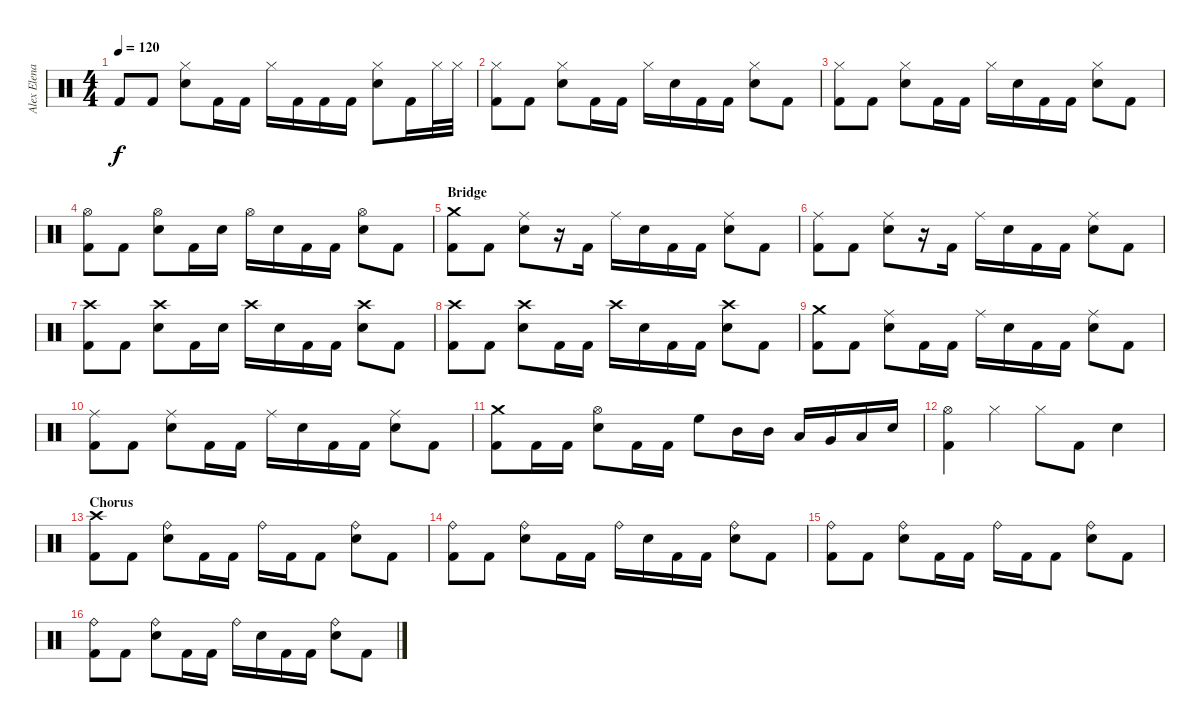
\track ("Alex Elena (Percussion)" "Alex Elena") {instrument percussion}
\staff {score}
\articulation defaults
\ts (4 4)
\tempo 120
\clef neutral
\ks c "Kick (hit) 2".8{dy f} "Kick (hit) 2".8
("Hi-Hat (closed)" "Snare (hit) 2").8 "Kick (hit) 2".16 "Kick (hit) 2".16 "Hi-Hat (closed)".16 "Kick (hit) 2".16 "Kick (hit) 2".16 "Kick (hit) 2".16 ("Hi-Hat (closed)" "Snare (hit) 2").8 "Kick (hit) 2".16 "Hi-Hat (closed)".32 "Hi-Hat (closed)".32 |
("Hi-Hat (closed)" "Kick (hit) 2").8 "Kick (hit) 2".8 ("Hi-Hat (closed)" "Snare (hit) 2").8 "Kick (hit) 2".16 "Kick (hit) 2".16 "Hi-Hat (closed)".16 "Snare (hit) 2".16 "Kick (hit) 2".16 "Kick (hit) 2".16 ("Hi-Hat (closed)" "Snare (hit) 2").8 "Kick (hit) 2".8 |
("Hi-Hat (closed)" "Kick (hit) 2").8 "Kick (hit) 2".8 ("Hi-Hat (closed)" "Snare (hit) 2").8 "Kick (hit) 2".16 "Kick (hit) 2".16 "Hi-Hat (closed)".16 "Snare (hit) 2".16 "Kick (hit) 2".16 "Kick (hit) 2".16 ("Hi-Hat (closed)" "Snare (hit) 2").8 "Kick (hit) 2".8 |
("Hi-Hat (open)" "Kick (hit) 2").8 "Kick (hit) 2".8 ("Hi-Hat (open)" "Snare (hit) 2").8 "Kick (hit) 2".16 "Snare (hit) 2".16 "Hi-Hat (open)".16 "Snare (hit) 2".16 "Kick (hit) 2".16 "Kick (hit) 2".16 ("Hi-Hat (open)" "Snare (hit) 2").8 "Kick (hit) 2".8 |
\section ("" "Bridge")
("Crash medium (hit)" "Kick (hit) 2").8 "Kick (hit) 2".8 ("Ride (middle)" "Snare (hit) 2").8 r.16 "Kick (hit) 2".16 "Ride (middle)".16 "Snare (hit) 2".16 "Kick (hit) 2".16 "Kick (hit) 2".16 ("Ride (middle)" "Snare (hit) 2").8 "Kick (hit) 2".8 |
("Ride (middle)" "Kick (hit) 2").8 "Kick (hit) 2".8 ("Ride (middle)" "Snare (hit) 2").8 r.16 "Kick (hit) 2".16 "Ride (middle)".16 "Snare (hit) 2".16 "Kick (hit) 2".16 "Kick (hit) 2".16 ("Ride (middle)" "Snare (hit) 2").8 "Kick (hit) 2".8 |
("Crash high (hit)" "Kick (hit) 2").8 "Kick (hit) 2".8 ("Crash high (hit)" "Snare (hit) 2").8 "Kick (hit) 2".16 "Snare (hit) 2".16 "Crash high (hit)".16 "Snare (hit) 2".16 "Kick (hit) 2".16 "Kick (hit) 2".16 ("Crash high (hit)" "Snare (hit) 2").8 "Kick (hit) 2".8 |
("Crash high (hit)" "Kick (hit) 2").8 "Kick (hit) 2".8 ("Crash high (hit)" "Snare (hit) 2").8 "Kick (hit) 2".16 "Kick (hit) 2".16 "Crash high (hit)".16 "Snare (hit) 2".16 "Kick (hit) 2".16 "Kick (hit) 2".16 ("Crash high (hit)" "Snare (hit) 2").8 "Kick (hit) 2".8 |
("Crash medium (hit)" "Kick (hit) 2").8 "Kick (hit) 2".8 ("Ride (middle)" "Snare (hit) 2").8 "Kick (hit) 2".16 "Kick (hit) 2".16 "Ride (middle)".16 "Snare (hit) 2".16 "Kick (hit) 2".16 "Kick (hit) 2".16 ("Ride (middle)" "Snare (hit) 2").8 "Kick (hit) 2".8 |
("Ride (middle)" "Kick (hit) 2").8 "Kick (hit) 2".8 ("Ride (middle)" "Snare (hit) 2").8 "Kick (hit) 2".16 "Kick (hit) 2".16 "Ride (middle)".16 "Snare (hit) 2".16 "Kick (hit) 2".16 "Kick (hit) 2".16 ("Ride (middle)" "Snare (hit) 2").8 "Kick (hit) 2".8 |
("Crash medium (hit)" "Kick (hit) 2").8 "Kick (hit) 2".16 "Kick (hit) 2".16 ("Hi-Hat (open)" "Snare (hit) 2").8 "Kick (hit) 2".16 "Kick (hit) 2".16 "High Floor Tom (hit)".8 "Mid Tom (hit)".16 "Mid Tom (hit)".16 "Low Tom (hit)".16 "Very Low Tom (hit)".16 "Low Floor Tom (hit)".16 "Snare (hit) 2".16 |
("Hi-Hat (open)" "Kick (hit) 2").4 "Hi-Hat (closed)".4 "Hi-Hat (closed)".8 "Kick (hit) 2".8 "Snare (hit) 2".4 |
\section ("" "Chorus")
("Crash high (hit)" "Kick (hit) 2").8 "Kick (hit) 2".8 ("Ride (bell)" "Snare (hit) 2").8 "Kick (hit) 2".16 "Kick (hit) 2".16 "Ride (bell)".16 "Kick (hit) 2".16 "Kick (hit) 2".8 ("Ride (bell)" "Snare (hit) 2").8 "Kick (hit) 2".8 |
("Ride (bell)" "Kick (hit) 2").8 "Kick (hit) 2".8 ("Ride (bell)" "Snare (hit) 2").8 "Kick (hit) 2".16 "Kick (hit) 2".16 "Ride (bell)".16 "Snare (hit) 2".16 "Kick (hit) 2".16 "Kick (hit) 2".16 ("Ride (bell)" "Snare (hit) 2").8 "Kick (hit) 2".8 |
("Ride (bell)" "Kick (hit) 2").8 "Kick (hit) 2".8 ("Ride (bell)" "Snare (hit) 2").8 "Kick (hit) 2".16 "Kick (hit) 2".16 "Ride (bell)".16 "Kick (hit) 2".16 "Kick (hit) 2".8 ("Ride (bell)" "Snare (hit) 2").8 "Kick (hit) 2".8 |
("Ride (bell)" "Kick (hit) 2").8 "Kick (hit) 2".8 ("Ride (bell)" "Snare (hit) 2").8 "Kick (hit) 2".16 "Kick (hit) 2".16 "Ride (bell)".16 "Snare (hit) 2".16 "Kick (hit) 2".16 "Kick (hit) 2".16 ("Ride (bell)" "Snare (hit) 2").8 "Kick (hit) 2".8
